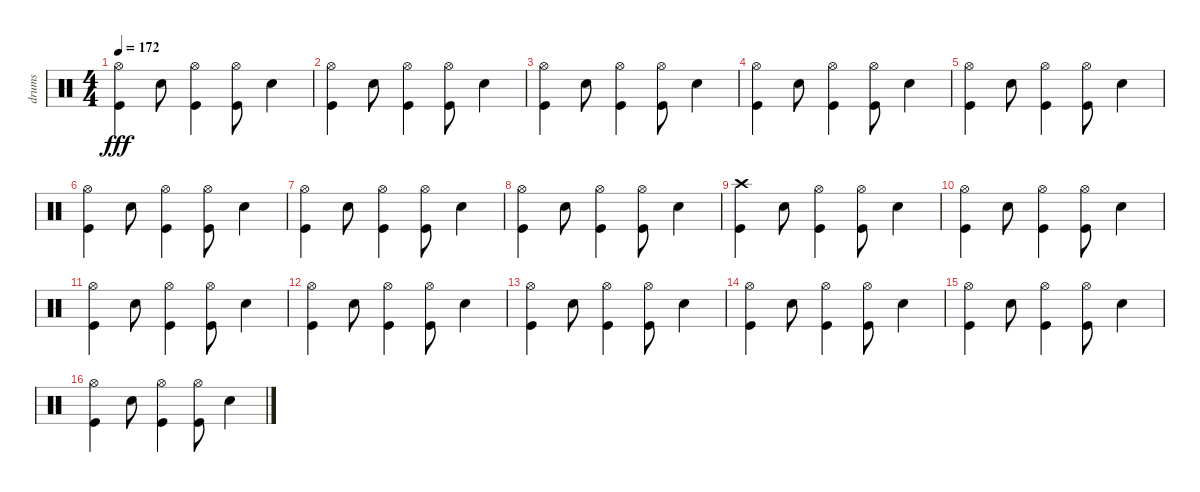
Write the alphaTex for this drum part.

\track ("drums" "drums") {instrument percussion}
\staff {score}
\articulation defaults
\ts (4 4)
\tempo 172
\clef neutral
\ks c
("Hi-Hat (open)" "Kick (hit)").4{dy fff} "Electric Snare (hit)".8 ("Hi-Hat (open)" "Kick (hit)").4 ("Hi-Hat (open)" "Kick (hit)").8 "Electric Snare (hit)".4 |
("Hi-Hat (open)" "Kick (hit)").4 "Electric Snare (hit)".8 ("Hi-Hat (open)" "Kick (hit)").4 ("Hi-Hat (open)" "Kick (hit)").8 "Electric Snare (hit)".4 |
("Hi-Hat (open)" "Kick (hit)").4 "Electric Snare (hit)".8 ("Hi-Hat (open)" "Kick (hit)").4 ("Hi-Hat (open)" "Kick (hit)").8 "Electric Snare (hit)".4 |
("Hi-Hat (open)" "Kick (hit)").4 "Electric Snare (hit)".8 ("Hi-Hat (open)" "Kick (hit)").4 ("Hi-Hat (open)" "Kick (hit)").8 "Electric Snare (hit)".4 |
("Hi-Hat (open)" "Kick (hit)").4 "Electric Snare (hit)".8 ("Hi-Hat (open)" "Kick (hit)").4 ("Hi-Hat (open)" "Kick (hit)").8 "Electric Snare (hit)".4 |
("Hi-Hat (open)" "Kick (hit)").4 "Electric Snare (hit)".8 ("Hi-Hat (open)" "Kick (hit)").4 ("Hi-Hat (open)" "Kick (hit)").8 "Electric Snare (hit)".4 |
("Hi-Hat (open)" "Kick (hit)").4 "Electric Snare (hit)".8 ("Hi-Hat (open)" "Kick (hit)").4 ("Hi-Hat (open)" "Kick (hit)").8 "Electric Snare (hit)".4 |
("Hi-Hat (open)" "Kick (hit)").4 "Electric Snare (hit)".8 ("Hi-Hat (open)" "Kick (hit)").4 ("Hi-Hat (open)" "Kick (hit)").8 "Electric Snare (hit)".4 |
("Crash high (hit)" "Kick (hit)").4 "Electric Snare (hit)".8 ("Hi-Hat (open)" "Kick (hit)").4 ("Hi-Hat (open)" "Kick (hit)").8 "Electric Snare (hit)".4 |
("Hi-Hat (open)" "Kick (hit)").4 "Electric Snare (hit)".8 ("Hi-Hat (open)" "Kick (hit)").4 ("Hi-Hat (open)" "Kick (hit)").8 "Electric Snare (hit)".4 |
("Hi-Hat (open)" "Kick (hit)").4 "Electric Snare (hit)".8 ("Hi-Hat (open)" "Kick (hit)").4 ("Hi-Hat (open)" "Kick (hit)").8 "Electric Snare (hit)".4 |
("Hi-Hat (open)" "Kick (hit)").4 "Electric Snare (hit)".8 ("Hi-Hat (open)" "Kick (hit)").4 ("Hi-Hat (open)" "Kick (hit)").8 "Electric Snare (hit)".4 |
("Hi-Hat (open)" "Kick (hit)").4 "Electric Snare (hit)".8 ("Hi-Hat (open)" "Kick (hit)").4 ("Hi-Hat (open)" "Kick (hit)").8 "Electric Snare (hit)".4 |
("Hi-Hat (open)" "Kick (hit)").4 "Electric Snare (hit)".8 ("Hi-Hat (open)" "Kick (hit)").4 ("Hi-Hat (open)" "Kick (hit)").8 "Electric Snare (hit)".4 |
("Hi-Hat (open)" "Kick (hit)").4 "Electric Snare (hit)".8 ("Hi-Hat (open)" "Kick (hit)").4 ("Hi-Hat (open)" "Kick (hit)").8 "Electric Snare (hit)".4 |
("Hi-Hat (open)" "Kick (hit)").4 "Electric Snare (hit)".8 ("Hi-Hat (open)" "Kick (hit)").4 ("Hi-Hat (open)" "Kick (hit)").8 "Electric Snare (hit)".4
